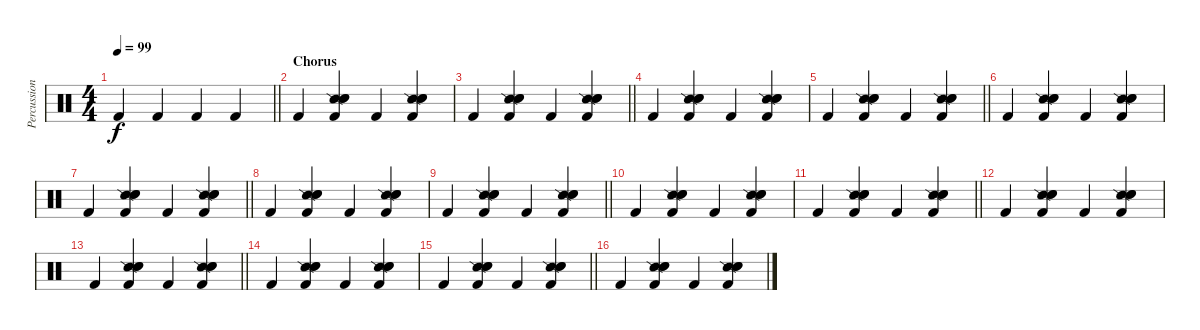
\track ("Percussion" "Percussion") {instrument percussion}
\staff {score}
\articulation defaults
\ts (4 4)
\tempo 99
\clef neutral
\barLineRight lightlight
\ks c "Kick (hit) 2".4{dy f} "Kick (hit) 2".4 "Kick (hit) 2".4 "Kick (hit) 2".4
|
\section ("" "Chorus")
"Kick (hit) 2".4 ("Snare (side stick) 2" "Hand Clap (hit)" "Hand Clap (hit)" "Kick (hit) 2").4 "Kick (hit) 2".4 ("Snare (side stick) 2" "Hand Clap (hit)" "Hand Clap (hit)" "Kick (hit) 2").4 |
\barLineRight lightlight "Kick (hit) 2".4
("Snare (side stick) 2" "Hand Clap (hit)" "Hand Clap (hit)" "Kick (hit) 2").4 "Kick (hit) 2".4 ("Snare (side stick) 2" "Hand Clap (hit)" "Hand Clap (hit)" "Kick (hit) 2").4 |
"Kick (hit) 2".4 ("Snare (side stick) 2" "Hand Clap (hit)" "Hand Clap (hit)" "Kick (hit) 2").4 "Kick (hit) 2".4 ("Snare (side stick) 2" "Hand Clap (hit)" "Hand Clap (hit)" "Kick (hit) 2").4 |
\barLineRight lightlight "Kick (hit) 2".4
("Snare (side stick) 2" "Hand Clap (hit)" "Hand Clap (hit)" "Kick (hit) 2").4 "Kick (hit) 2".4 ("Snare (side stick) 2" "Hand Clap (hit)" "Hand Clap (hit)" "Kick (hit) 2").4 |
"Kick (hit) 2".4 ("Snare (side stick) 2" "Hand Clap (hit)" "Hand Clap (hit)" "Kick (hit) 2").4 "Kick (hit) 2".4 ("Snare (side stick) 2" "Hand Clap (hit)" "Hand Clap (hit)" "Kick (hit) 2").4 |
\barLineRight lightlight "Kick (hit) 2".4
("Snare (side stick) 2" "Hand Clap (hit)" "Hand Clap (hit)" "Kick (hit) 2").4 "Kick (hit) 2".4 ("Snare (side stick) 2" "Hand Clap (hit)" "Hand Clap (hit)" "Kick (hit) 2").4 |
"Kick (hit) 2".4 ("Snare (side stick) 2" "Hand Clap (hit)" "Hand Clap (hit)" "Kick (hit) 2").4 "Kick (hit) 2".4 ("Snare (side stick) 2" "Hand Clap (hit)" "Hand Clap (hit)" "Kick (hit) 2").4 |
\barLineRight lightlight "Kick (hit) 2".4
("Snare (side stick) 2" "Hand Clap (hit)" "Hand Clap (hit)" "Kick (hit) 2").4 "Kick (hit) 2".4 ("Snare (side stick) 2" "Hand Clap (hit)" "Hand Clap (hit)" "Kick (hit) 2").4 |
"Kick (hit) 2".4 ("Snare (side stick) 2" "Hand Clap (hit)" "Hand Clap (hit)" "Kick (hit) 2").4 "Kick (hit) 2".4 ("Snare (side stick) 2" "Hand Clap (hit)" "Hand Clap (hit)" "Kick (hit) 2").4 |
\barLineRight lightlight "Kick (hit) 2".4
("Snare (side stick) 2" "Hand Clap (hit)" "Hand Clap (hit)" "Kick (hit) 2").4 "Kick (hit) 2".4 ("Snare (side stick) 2" "Hand Clap (hit)" "Hand Clap (hit)" "Kick (hit) 2").4 |
"Kick (hit) 2".4 ("Snare (side stick) 2" "Hand Clap (hit)" "Hand Clap (hit)" "Kick (hit) 2").4 "Kick (hit) 2".4 ("Snare (side stick) 2" "Hand Clap (hit)" "Hand Clap (hit)" "Kick (hit) 2").4 |
\barLineRight lightlight "Kick (hit) 2".4
("Snare (side stick) 2" "Hand Clap (hit)" "Hand Clap (hit)" "Kick (hit) 2").4 "Kick (hit) 2".4 ("Snare (side stick) 2" "Hand Clap (hit)" "Hand Clap (hit)" "Kick (hit) 2").4 |
"Kick (hit) 2".4 ("Snare (side stick) 2" "Hand Clap (hit)" "Hand Clap (hit)" "Kick (hit) 2").4 "Kick (hit) 2".4 ("Snare (side stick) 2" "Hand Clap (hit)" "Hand Clap (hit)" "Kick (hit) 2").4 |
\barLineRight lightlight "Kick (hit) 2".4
("Snare (side stick) 2" "Hand Clap (hit)" "Hand Clap (hit)" "Kick (hit) 2").4 "Kick (hit) 2".4 ("Snare (side stick) 2" "Hand Clap (hit)" "Hand Clap (hit)" "Kick (hit) 2").4 |
"Kick (hit) 2".4 ("Snare (side stick) 2" "Hand Clap (hit)" "Hand Clap (hit)" "Kick (hit) 2").4 "Kick (hit) 2".4 ("Snare (side stick) 2" "Hand Clap (hit)" "Hand Clap (hit)" "Kick (hit) 2").4
